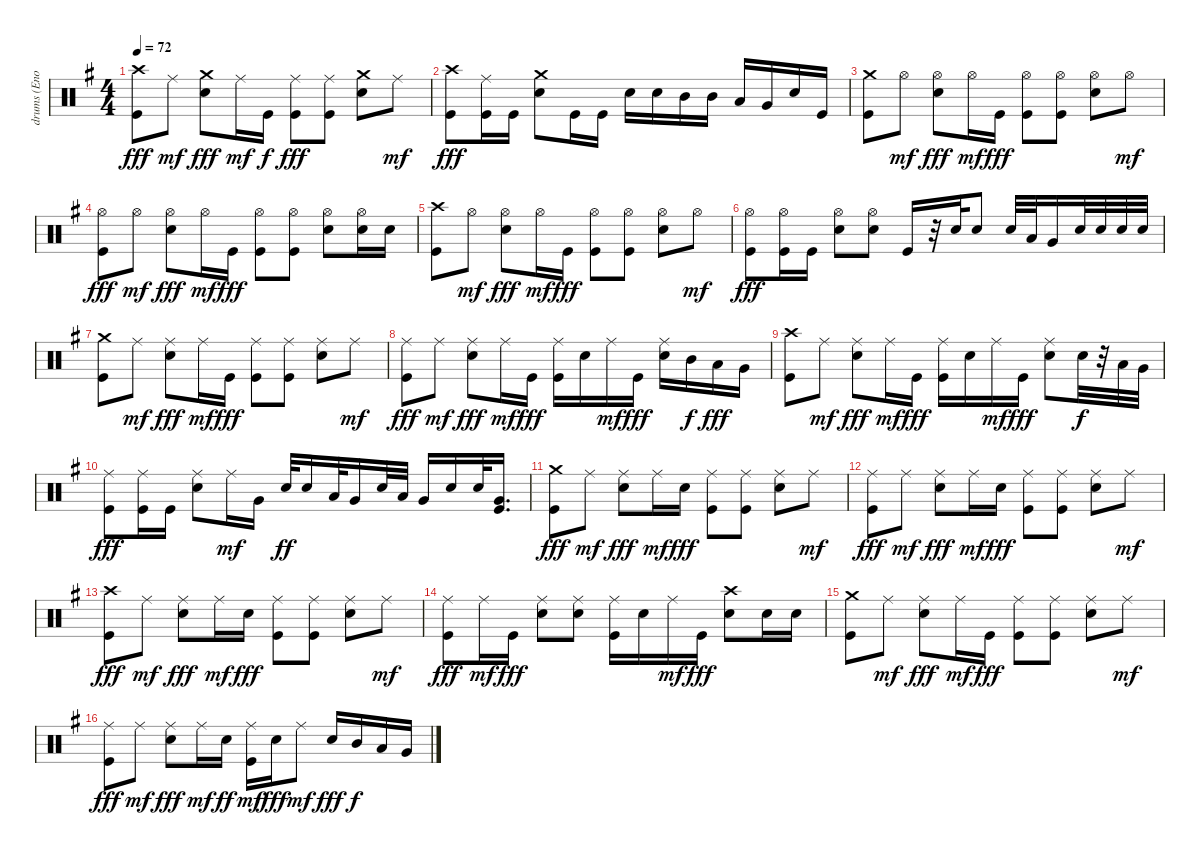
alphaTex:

\track ("drums (Enoch)" "drums (Eno") {instrument percussion}
\staff {score}
\articulation defaults
\ts (4 4)
\tempo 72
\clef neutral
\ks g
("Crash high (hit)" "Kick (hit)").8{dy fff} "Ride (middle)".8{dy mf} ("Crash medium (hit)" "Snare (hit) 2").8{dy fff} "Ride (middle)".16{dy mf} "Kick (hit)".16{dy f} ("Ride (middle)" "Kick (hit)").8{dy fff} ("Ride (middle)" "Kick (hit)").8 ("Crash medium (hit)" "Snare (hit) 2").8 "Ride (middle)".8{dy mf} |
("Crash high (hit)" "Kick (hit)").8{dy fff} ("Ride (middle)" "Kick (hit)").16 "Kick (hit)".16 ("Crash medium (hit)" "Snare (hit) 2").8 "Kick (hit)".16 "Kick (hit)".16 "Snare (hit) 2".16 "Snare (hit) 2".16 "Mid Tom (hit)".16 "Mid Tom (hit)".16 "Low Tom (hit)".16 "Very Low Tom (hit)".16 "Snare (hit) 2".16 "Kick (hit)".16 |
("Crash medium (hit)" "Kick (hit)").8 "Hi-Hat (open)".8{dy mf} ("Hi-Hat (open)" "Snare (hit) 2").8{dy fff} "Hi-Hat (open)".16{dy mf} "Kick (hit)".16{dy fff} ("Hi-Hat (open)" "Kick (hit)").8 ("Hi-Hat (open)" "Kick (hit)").8 ("Hi-Hat (open)" "Snare (hit) 2").8 "Hi-Hat (open)".8{dy mf} |
("Hi-Hat (open)" "Kick (hit)").8{dy fff} "Hi-Hat (open)".8{dy mf} ("Hi-Hat (open)" "Snare (hit) 2").8{dy fff} "Hi-Hat (open)".16{dy mf} "Kick (hit)".16{dy fff} ("Hi-Hat (open)" "Kick (hit)").8 ("Hi-Hat (open)" "Kick (hit)").8 ("Hi-Hat (open)" "Snare (hit) 2").8 ("Hi-Hat (open)" "Snare (hit) 2").16 "Snare (hit) 2".16 |
("Crash high (hit)" "Kick (hit)").8 "Hi-Hat (open)".8{dy mf} ("Hi-Hat (open)" "Snare (hit) 2").8{dy fff} "Hi-Hat (open)".16{dy mf} "Kick (hit)".16{dy fff} ("Hi-Hat (open)" "Kick (hit)").8 ("Hi-Hat (open)" "Kick (hit)").8 ("Hi-Hat (open)" "Snare (hit) 2").8 "Hi-Hat (open)".8{dy mf} |
("Hi-Hat (open)" "Kick (hit)").8{dy fff} ("Hi-Hat (open)" "Kick (hit)").16 "Kick (hit)".16 ("Hi-Hat (open)" "Snare (hit) 2").8 ("Hi-Hat (open)" "Snare (hit) 2").8 "Kick (hit)".16 r.32 "Snare (hit) 2".32 "Snare (hit) 2".8 "Snare (hit) 2".32 "Low Tom (hit)".32 "Very Low Tom (hit)".16 "Snare (hit) 2".32 "Snare (hit) 2".32 "Snare (hit) 2".32 "Snare (hit) 2".32 |
("Crash medium (hit)" "Kick (hit)").8 "Ride (middle)".8{dy mf} ("Ride (middle)" "Snare (hit) 2").8{dy fff} "Ride (middle)".16{dy mf} "Kick (hit)".16{dy fff} ("Ride (middle)" "Kick (hit)").8 ("Ride (middle)" "Kick (hit)").8 ("Ride (middle)" "Snare (hit) 2").8 "Ride (middle)".8{dy mf} |
("Ride (middle)" "Kick (hit)").8{dy fff} "Ride (middle)".8{dy mf} ("Ride (middle)" "Snare (hit) 2").8{dy fff} "Ride (middle)".16{dy mf} "Kick (hit)".16{dy fff} ("Ride (middle)" "Kick (hit)").16 "Snare (hit) 2".16 "Ride (middle)".16{dy mf} "Kick (hit)".16{dy fff} ("Ride (middle)" "Snare (hit) 2").16 "Mid Tom (hit)".16{dy f} "Low Tom (hit)".16{dy fff} "Very Low Tom (hit)".16 |
("Crash high (hit)" "Kick (hit)").8 "Ride (middle)".8{dy mf} ("Ride (middle)" "Snare (hit) 2").8{dy fff} "Ride (middle)".16{dy mf} "Kick (hit)".16{dy fff} ("Ride (middle)" "Kick (hit)").16 "Snare (hit) 2".16 "Ride (middle)".16{dy mf} "Kick (hit)".16{dy fff} ("Ride (middle)" "Snare (hit) 2").8 "Snare (hit) 2".32{dy f} r.32 "Low Tom (hit)".32 "Very Low Tom (hit)".32 |
("Ride (middle)" "Kick (hit)").8{dy fff} ("Ride (middle)" "Kick (hit)").16 "Kick (hit)".16 ("Ride (middle)" "Snare (hit) 2").8 "Ride (middle)".16{dy mf} "Very Low Tom (hit)".16 "Snare (hit) 2".32{dy ff} "Snare (hit) 2".16 "Low Tom (hit)".32 "Very Low Tom (hit)".16 "Snare (hit) 2".32 "Low Tom (hit)".32 "Very Low Tom (hit)".16 "Snare (hit) 2".16 "Snare (hit) 2".32 ("Very Low Tom (hit)" "Kick (hit)").16{d} |
("Crash medium (hit)" "Kick (hit)").8{dy fff} "Ride (middle)".8{dy mf} ("Ride (middle)" "Snare (hit) 2").8{dy fff} "Ride (middle)".16{dy mf} "Snare (hit) 2".16{dy fff} ("Ride (middle)" "Kick (hit)").8 ("Ride (middle)" "Kick (hit)").8 ("Ride (middle)" "Snare (hit) 2").8 "Ride (middle)".8{dy mf} |
("Ride (middle)" "Kick (hit)").8{dy fff} "Ride (middle)".8{dy mf} ("Ride (middle)" "Snare (hit) 2").8{dy fff} "Ride (middle)".16{dy mf} "Snare (hit) 2".16{dy fff} ("Ride (middle)" "Kick (hit)").8 ("Ride (middle)" "Kick (hit)").8 ("Ride (middle)" "Snare (hit) 2").8 "Ride (middle)".8{dy mf} |
("Crash high (hit)" "Kick (hit)").8{dy fff} "Ride (middle)".8{dy mf} ("Ride (middle)" "Snare (hit) 2").8{dy fff} "Ride (middle)".16{dy mf} "Snare (hit) 2".16{dy fff} ("Ride (middle)" "Kick (hit)").8 ("Ride (middle)" "Kick (hit)").8 ("Ride (middle)" "Snare (hit) 2").8 "Ride (middle)".8{dy mf} |
("Ride (middle)" "Kick (hit)").8{dy fff} "Ride (middle)".16{dy mf} "Kick (hit)".16{dy fff} ("Ride (middle)" "Snare (hit) 2").8 ("Ride (middle)" "Snare (hit) 2").8 ("Ride (middle)" "Kick (hit)").16 "Snare (hit) 2".16 "Ride (middle)".16{dy mf} "Kick (hit)".16{dy fff} ("Crash high (hit)" "Snare (hit) 2").8 "Snare (hit) 2".16 "Snare (hit) 2".16 |
("Crash medium (hit)" "Kick (hit)").8 "Ride (middle)".8{dy mf} ("Ride (middle)" "Snare (hit) 2").8{dy fff} "Ride (middle)".16{dy mf} "Kick (hit)".16{dy fff} ("Ride (middle)" "Kick (hit)").8 ("Ride (middle)" "Kick (hit)").8 ("Ride (middle)" "Snare (hit) 2").8 "Ride (middle)".8{dy mf} |
("Ride (middle)" "Kick (hit)").8{dy fff} "Ride (middle)".8{dy mf} ("Ride (middle)" "Snare (hit) 2").8{dy fff} "Ride (middle)".16{dy mf} "Snare (hit) 2".16{dy ff} ("Ride (middle)" "Kick (hit)").16{dy mf} "Snare (hit) 2".16{dy fff} "Ride (middle)".8{dy mf} "Snare (hit) 2".16{dy fff} "Mid Tom (hit)".16{dy f} "Low Tom (hit)".16 "Very Low Tom (hit)".16
